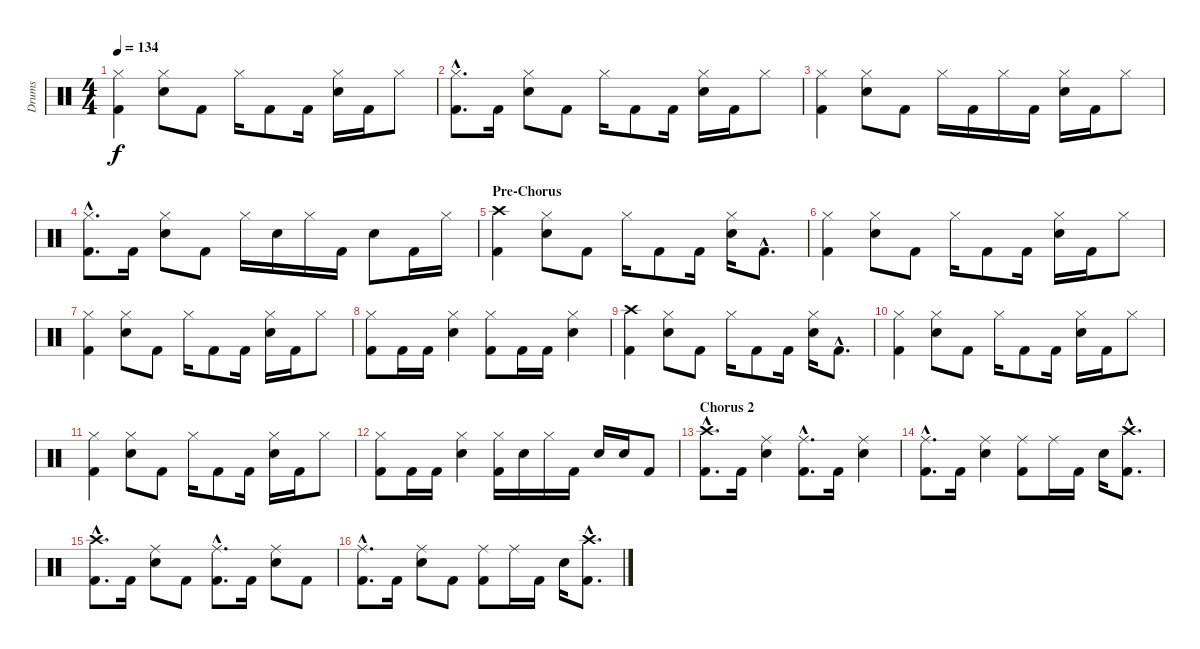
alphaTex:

\track ("Drums" "Drums") {instrument percussion}
\staff {score}
\articulation defaults
\ts (4 4)
\tempo 134
\clef neutral
\ks c
("Hi-Hat (closed)" "Kick (hit) 2").4{dy f} ("Hi-Hat (closed)" "Electric Snare (hit)").8 "Kick (hit) 2".8 "Hi-Hat (closed)".16 "Kick (hit) 2".8 "Kick (hit) 2".16 ("Hi-Hat (closed)" "Electric Snare (hit)").16 "Kick (hit) 2".16 "Hi-Hat (closed)".8 |
("Hi-Hat (closed)"{hac} "Kick (hit) 2"{hac}).8{d} "Kick (hit) 2".16 ("Hi-Hat (closed)" "Electric Snare (hit)").8 "Kick (hit) 2".8 "Hi-Hat (closed)".16 "Kick (hit) 2".8 "Kick (hit) 2".16 ("Hi-Hat (closed)" "Electric Snare (hit)").16 "Kick (hit) 2".16 "Hi-Hat (closed)".8 |
("Hi-Hat (closed)" "Kick (hit) 2").4 ("Hi-Hat (closed)" "Electric Snare (hit)").8 "Kick (hit) 2".8 "Hi-Hat (closed)".16 "Kick (hit) 2".16 "Hi-Hat (closed)".16 "Kick (hit) 2".16 ("Hi-Hat (closed)" "Electric Snare (hit)").16 "Kick (hit) 2".16 "Hi-Hat (closed)".8 |
("Hi-Hat (closed)"{hac} "Kick (hit) 2"{hac}).8{d} "Kick (hit) 2".16 ("Hi-Hat (closed)" "Electric Snare (hit)").8 "Kick (hit) 2".8 "Hi-Hat (closed)".16 "Electric Snare (hit)".16 "Hi-Hat (closed)".16 "Kick (hit) 2".16 "Electric Snare (hit)".8 "Kick (hit) 2".16 "Hi-Hat (closed)".16 |
\section ("" "Pre-Chorus")
("Crash high (hit)" "Kick (hit) 2").4 ("Hi-Hat (closed)" "Electric Snare (hit)").8 "Kick (hit) 2".8 "Hi-Hat (closed)".16 "Kick (hit) 2".8 "Kick (hit) 2".16 ("Hi-Hat (closed)" "Electric Snare (hit)").16 "Kick (hit) 2"{hac}.8{d} |
("Hi-Hat (closed)" "Kick (hit) 2").4 ("Hi-Hat (closed)" "Electric Snare (hit)").8 "Kick (hit) 2".8 "Hi-Hat (closed)".16 "Kick (hit) 2".8 "Kick (hit) 2".16 ("Hi-Hat (closed)" "Electric Snare (hit)").16 "Kick (hit) 2".16 "Hi-Hat (closed)".8 |
("Hi-Hat (closed)" "Kick (hit) 2").4 ("Hi-Hat (closed)" "Electric Snare (hit)").8 "Kick (hit) 2".8 "Hi-Hat (closed)".16 "Kick (hit) 2".8 "Kick (hit) 2".16 ("Hi-Hat (closed)" "Electric Snare (hit)").16 "Kick (hit) 2".16 "Hi-Hat (closed)".8 |
("Hi-Hat (closed)" "Kick (hit) 2").8 "Kick (hit) 2".16 "Kick (hit) 2".16 ("Hi-Hat (closed)" "Electric Snare (hit)").4 ("Hi-Hat (closed)" "Kick (hit) 2").8 "Kick (hit) 2".16 "Kick (hit) 2".16 ("Hi-Hat (closed)" "Electric Snare (hit)").4 |
("Crash high (hit)" "Kick (hit) 2").4 ("Hi-Hat (closed)" "Electric Snare (hit)").8 "Kick (hit) 2".8 "Hi-Hat (closed)".16 "Kick (hit) 2".8 "Kick (hit) 2".16 ("Hi-Hat (closed)" "Electric Snare (hit)").16 "Kick (hit) 2"{hac}.8{d} |
("Hi-Hat (closed)" "Kick (hit) 2").4 ("Hi-Hat (closed)" "Electric Snare (hit)").8 "Kick (hit) 2".8 "Hi-Hat (closed)".16 "Kick (hit) 2".8 "Kick (hit) 2".16 ("Hi-Hat (closed)" "Electric Snare (hit)").16 "Kick (hit) 2".16 "Hi-Hat (closed)".8 |
("Hi-Hat (closed)" "Kick (hit) 2").4 ("Hi-Hat (closed)" "Electric Snare (hit)").8 "Kick (hit) 2".8 "Hi-Hat (closed)".16 "Kick (hit) 2".8 "Kick (hit) 2".16 ("Hi-Hat (closed)" "Electric Snare (hit)").16 "Kick (hit) 2".16 "Hi-Hat (closed)".8 |
("Hi-Hat (closed)" "Kick (hit) 2").8 "Kick (hit) 2".16 "Kick (hit) 2".16 ("Hi-Hat (closed)" "Electric Snare (hit)").4 ("Hi-Hat (closed)" "Kick (hit) 2").16 "Electric Snare (hit)".16 "Hi-Hat (closed)".16 "Kick (hit) 2".16 "Electric Snare (hit)".16 "Electric Snare (hit)".16 "Kick (hit) 2".8 |
\section ("" "Chorus 2")
("Crash high (hit)"{hac} "Kick (hit) 2"{hac}).8{d} "Kick (hit) 2".16 ("Ride (middle)" "Electric Snare (hit)").4 ("Ride (middle)"{hac} "Kick (hit) 2"{hac}).8{d} "Kick (hit) 2".16 ("Ride (middle)" "Electric Snare (hit)").4 |
("Ride (middle)"{hac} "Kick (hit) 2"{hac}).8{d} "Kick (hit) 2".16 ("Ride (middle)" "Electric Snare (hit)").4 ("Ride (middle)" "Kick (hit) 2").8 "Ride (middle)".16 "Kick (hit) 2".16 "Electric Snare (hit)".16 ("Crash high (hit)"{hac} "Kick (hit) 2"{hac}).8{d} |
("Crash high (hit)"{hac} "Kick (hit) 2"{hac}).8{d} "Kick (hit) 2".16 ("Ride (middle)" "Electric Snare (hit)").8 "Kick (hit) 2".8 ("Ride (middle)"{hac} "Kick (hit) 2"{hac}).8{d} "Kick (hit) 2".16 ("Ride (middle)" "Electric Snare (hit)").8 "Kick (hit) 2".8 |
("Ride (middle)"{hac} "Kick (hit) 2"{hac}).8{d} "Kick (hit) 2".16 ("Ride (middle)" "Electric Snare (hit)").8 "Kick (hit) 2".8 ("Ride (middle)" "Kick (hit) 2").8 "Ride (middle)".16 "Kick (hit) 2".16 "Electric Snare (hit)".16 ("Crash high (hit)"{hac} "Kick (hit) 2"{hac}).8{d}
